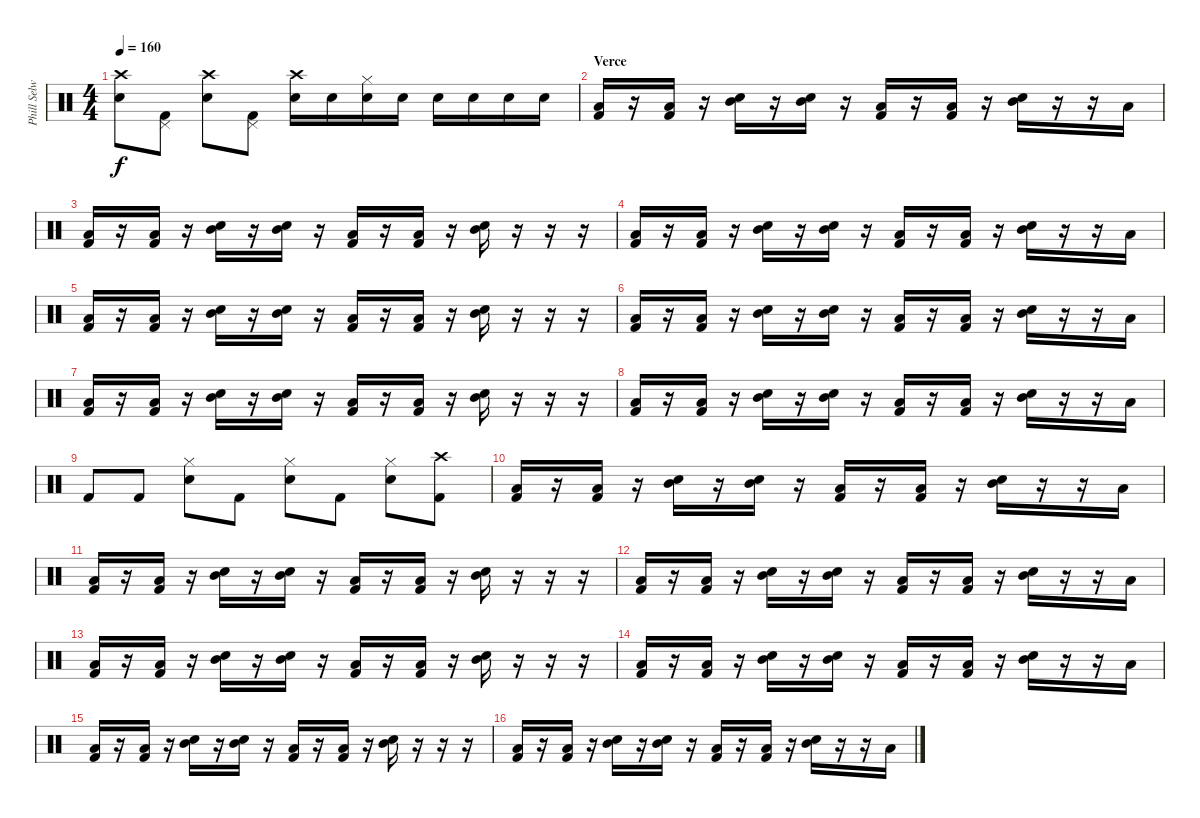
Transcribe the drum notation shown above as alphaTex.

\track ("Phill Selway" "Phill Selw") {instrument percussion}
\staff {score}
\articulation defaults
\ts (4 4)
\tempo 160
\clef neutral
\ks c
("Snare (hit) 2" "Crash high (hit)").8{dy f} ("Kick (hit) 2" "Pedal Hi-Hat (hit)").8 ("Snare (hit) 2" "Crash high (hit)").8 ("Kick (hit) 2" "Pedal Hi-Hat (hit)").8 ("Snare (hit) 2" "Crash high (hit)").16 "Snare (hit) 2".16 ("Snare (hit) 2" "Hi-Hat (closed)").16 "Snare (hit) 2".16 "Snare (hit) 2".16 "Snare (hit) 2".16 "Snare (hit) 2".16 "Snare (hit) 2".16 |
\section ("" "Verce")
("Kick (hit) 2" "Low Tom (hit)").16 r.16 ("Kick (hit) 2" "Low Tom (hit)").16 r.16 ("Snare (hit) 2" "Mid Tom (hit)").16 r.16 ("Snare (hit) 2" "Mid Tom (hit)").16 r.16 ("Kick (hit) 2" "Low Tom (hit)").16 r.16 ("Kick (hit) 2" "Low Tom (hit)").16 r.16 ("Snare (hit) 2" "Mid Tom (hit)").16 r.16 r.16 "Low Tom (hit)".16 |
("Kick (hit) 2" "Low Tom (hit)").16 r.16 ("Kick (hit) 2" "Low Tom (hit)").16 r.16 ("Snare (hit) 2" "Mid Tom (hit)").16 r.16 ("Snare (hit) 2" "Mid Tom (hit)").16 r.16 ("Kick (hit) 2" "Low Tom (hit)").16 r.16 ("Kick (hit) 2" "Low Tom (hit)").16 r.16 ("Snare (hit) 2" "Mid Tom (hit)").16 r.16 r.16 r.16 |
("Kick (hit) 2" "Low Tom (hit)").16 r.16 ("Kick (hit) 2" "Low Tom (hit)").16 r.16 ("Snare (hit) 2" "Mid Tom (hit)").16 r.16 ("Snare (hit) 2" "Mid Tom (hit)").16 r.16 ("Kick (hit) 2" "Low Tom (hit)").16 r.16 ("Kick (hit) 2" "Low Tom (hit)").16 r.16 ("Snare (hit) 2" "Mid Tom (hit)").16 r.16 r.16 "Low Tom (hit)".16 |
("Kick (hit) 2" "Low Tom (hit)").16 r.16 ("Kick (hit) 2" "Low Tom (hit)").16 r.16 ("Snare (hit) 2" "Mid Tom (hit)").16 r.16 ("Snare (hit) 2" "Mid Tom (hit)").16 r.16 ("Kick (hit) 2" "Low Tom (hit)").16 r.16 ("Kick (hit) 2" "Low Tom (hit)").16 r.16 ("Snare (hit) 2" "Mid Tom (hit)").16 r.16 r.16 r.16 |
("Kick (hit) 2" "Low Tom (hit)").16 r.16 ("Kick (hit) 2" "Low Tom (hit)").16 r.16 ("Snare (hit) 2" "Mid Tom (hit)").16 r.16 ("Snare (hit) 2" "Mid Tom (hit)").16 r.16 ("Kick (hit) 2" "Low Tom (hit)").16 r.16 ("Kick (hit) 2" "Low Tom (hit)").16 r.16 ("Snare (hit) 2" "Mid Tom (hit)").16 r.16 r.16 "Low Tom (hit)".16 |
("Kick (hit) 2" "Low Tom (hit)").16 r.16 ("Kick (hit) 2" "Low Tom (hit)").16 r.16 ("Snare (hit) 2" "Mid Tom (hit)").16 r.16 ("Snare (hit) 2" "Mid Tom (hit)").16 r.16 ("Kick (hit) 2" "Low Tom (hit)").16 r.16 ("Kick (hit) 2" "Low Tom (hit)").16 r.16 ("Snare (hit) 2" "Mid Tom (hit)").16 r.16 r.16 r.16 |
("Kick (hit) 2" "Low Tom (hit)").16 r.16 ("Kick (hit) 2" "Low Tom (hit)").16 r.16 ("Snare (hit) 2" "Mid Tom (hit)").16 r.16 ("Snare (hit) 2" "Mid Tom (hit)").16 r.16 ("Kick (hit) 2" "Low Tom (hit)").16 r.16 ("Kick (hit) 2" "Low Tom (hit)").16 r.16 ("Snare (hit) 2" "Mid Tom (hit)").16 r.16 r.16 "Low Tom (hit)".16 |
"Kick (hit) 2".8 "Kick (hit) 2".8 ("Snare (hit) 2" "Hi-Hat (closed)").8 "Kick (hit) 2".8 ("Snare (hit) 2" "Hi-Hat (closed)").8 "Kick (hit) 2".8 ("Snare (hit) 2" "Hi-Hat (closed)").8 ("Kick (hit) 2" "Crash high (hit)").8 |
("Kick (hit) 2" "Low Tom (hit)").16 r.16 ("Kick (hit) 2" "Low Tom (hit)").16 r.16 ("Snare (hit) 2" "Mid Tom (hit)").16 r.16 ("Snare (hit) 2" "Mid Tom (hit)").16 r.16 ("Kick (hit) 2" "Low Tom (hit)").16 r.16 ("Kick (hit) 2" "Low Tom (hit)").16 r.16 ("Snare (hit) 2" "Mid Tom (hit)").16 r.16 r.16 "Low Tom (hit)".16 |
("Kick (hit) 2" "Low Tom (hit)").16 r.16 ("Kick (hit) 2" "Low Tom (hit)").16 r.16 ("Snare (hit) 2" "Mid Tom (hit)").16 r.16 ("Snare (hit) 2" "Mid Tom (hit)").16 r.16 ("Kick (hit) 2" "Low Tom (hit)").16 r.16 ("Kick (hit) 2" "Low Tom (hit)").16 r.16 ("Snare (hit) 2" "Mid Tom (hit)").16 r.16 r.16 r.16 |
("Kick (hit) 2" "Low Tom (hit)").16 r.16 ("Kick (hit) 2" "Low Tom (hit)").16 r.16 ("Snare (hit) 2" "Mid Tom (hit)").16 r.16 ("Snare (hit) 2" "Mid Tom (hit)").16 r.16 ("Kick (hit) 2" "Low Tom (hit)").16 r.16 ("Kick (hit) 2" "Low Tom (hit)").16 r.16 ("Snare (hit) 2" "Mid Tom (hit)").16 r.16 r.16 "Low Tom (hit)".16 |
("Kick (hit) 2" "Low Tom (hit)").16 r.16 ("Kick (hit) 2" "Low Tom (hit)").16 r.16 ("Snare (hit) 2" "Mid Tom (hit)").16 r.16 ("Snare (hit) 2" "Mid Tom (hit)").16 r.16 ("Kick (hit) 2" "Low Tom (hit)").16 r.16 ("Kick (hit) 2" "Low Tom (hit)").16 r.16 ("Snare (hit) 2" "Mid Tom (hit)").16 r.16 r.16 r.16 |
("Kick (hit) 2" "Low Tom (hit)").16 r.16 ("Kick (hit) 2" "Low Tom (hit)").16 r.16 ("Snare (hit) 2" "Mid Tom (hit)").16 r.16 ("Snare (hit) 2" "Mid Tom (hit)").16 r.16 ("Kick (hit) 2" "Low Tom (hit)").16 r.16 ("Kick (hit) 2" "Low Tom (hit)").16 r.16 ("Snare (hit) 2" "Mid Tom (hit)").16 r.16 r.16 "Low Tom (hit)".16 |
("Kick (hit) 2" "Low Tom (hit)").16 r.16 ("Kick (hit) 2" "Low Tom (hit)").16 r.16 ("Snare (hit) 2" "Mid Tom (hit)").16 r.16 ("Snare (hit) 2" "Mid Tom (hit)").16 r.16 ("Kick (hit) 2" "Low Tom (hit)").16 r.16 ("Kick (hit) 2" "Low Tom (hit)").16 r.16 ("Snare (hit) 2" "Mid Tom (hit)").16 r.16 r.16 r.16 |
("Kick (hit) 2" "Low Tom (hit)").16 r.16 ("Kick (hit) 2" "Low Tom (hit)").16 r.16 ("Snare (hit) 2" "Mid Tom (hit)").16 r.16 ("Snare (hit) 2" "Mid Tom (hit)").16 r.16 ("Kick (hit) 2" "Low Tom (hit)").16 r.16 ("Kick (hit) 2" "Low Tom (hit)").16 r.16 ("Snare (hit) 2" "Mid Tom (hit)").16 r.16 r.16 "Low Tom (hit)".16
